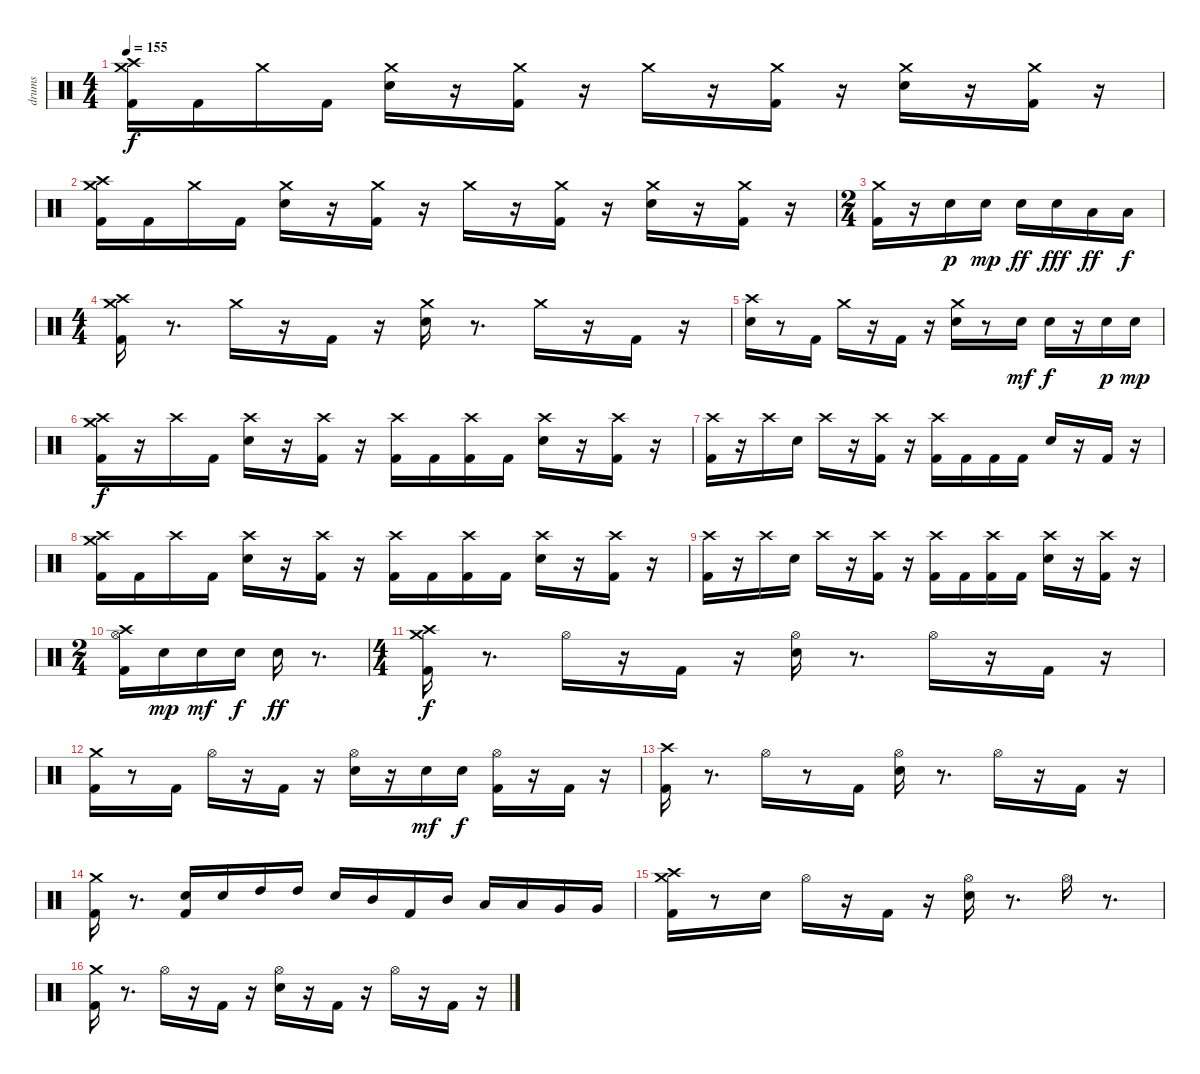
\track ("drums" "drums") {instrument percussion}
\staff {score}
\articulation defaults
\ts (4 4)
\tempo 155
\clef neutral
\ks c
("Kick (hit) 2" "Crash high (hit)" "Crash medium (hit)").16{dy f} "Kick (hit) 2".16 "Crash medium (hit)".16 "Kick (hit) 2".16 ("Snare (hit) 2" "Crash medium (hit)").16 r.16 ("Kick (hit) 2" "Crash medium (hit)").16 r.16 "Crash medium (hit)".16 r.16 ("Kick (hit) 2" "Crash medium (hit)").16 r.16 ("Snare (hit) 2" "Crash medium (hit)").16 r.16 ("Kick (hit) 2" "Crash medium (hit)").16 r.16 |
("Kick (hit) 2" "Crash high (hit)" "Crash medium (hit)").16 "Kick (hit) 2".16 "Crash medium (hit)".16 "Kick (hit) 2".16 ("Snare (hit) 2" "Crash medium (hit)").16 r.16 ("Kick (hit) 2" "Crash medium (hit)").16 r.16 "Crash medium (hit)".16 r.16 ("Kick (hit) 2" "Crash medium (hit)").16 r.16 ("Snare (hit) 2" "Crash medium (hit)").16 r.16 ("Kick (hit) 2" "Crash medium (hit)").16 r.16 |
\ts (2 4)
("Kick (hit) 2" "Crash medium (hit)").16 r.16 "Snare (hit) 2".16{dy p} "Snare (hit) 2".16{dy mp} "Snare (hit) 2".16{dy ff} "Snare (hit) 2".16{dy fff} "Low Tom (hit)".16{dy ff} "Low Tom (hit)".16{dy f} |
\ts (4 4)
("Kick (hit) 2" "Crash high (hit)" "Crash medium (hit)").16 r.8{d} "Crash medium (hit)".16 r.16 "Kick (hit) 2".16 r.16 ("Snare (hit) 2" "Crash medium (hit)").16 r.8{d} "Crash medium (hit)".16 r.16 "Kick (hit) 2".16 r.16 |
("Snare (hit) 2" "Crash high (hit)").16 r.8 "Kick (hit) 2".16 "Crash medium (hit)".16 r.16 "Kick (hit) 2".16 r.16 ("Snare (hit) 2" "Crash medium (hit)").16 r.8 "Snare (hit) 2".16{dy mf} "Snare (hit) 2".16{dy f} r.16 "Snare (hit) 2".16{dy p} "Snare (hit) 2".16{dy mp} |
("Kick (hit) 2" "Crash high (hit)" "Crash medium (hit)").16{dy f} r.16 "Crash high (hit)".16 "Kick (hit) 2".16 ("Snare (hit) 2" "Crash high (hit)").16 r.16 ("Kick (hit) 2" "Crash high (hit)").16 r.16 ("Kick (hit) 2" "Crash high (hit)").16 "Kick (hit) 2".16 ("Kick (hit) 2" "Crash high (hit)").16 "Kick (hit) 2".16 ("Snare (hit) 2" "Crash high (hit)").16 r.16 ("Kick (hit) 2" "Crash high (hit)").16 r.16 |
("Kick (hit) 2" "Crash high (hit)").16 r.16 "Crash high (hit)".16 "Snare (hit) 2".16 "Crash high (hit)".16 r.16 ("Kick (hit) 2" "Crash high (hit)").16 r.16 ("Kick (hit) 2" "Crash high (hit)").16 "Kick (hit) 2".16 "Kick (hit) 2".16 "Kick (hit) 2".16 "Snare (hit) 2".16 r.16 "Kick (hit) 2".16 r.16 |
("Kick (hit) 2" "Crash high (hit)" "Crash medium (hit)").16 "Kick (hit) 2".16 "Crash high (hit)".16 "Kick (hit) 2".16 ("Snare (hit) 2" "Crash high (hit)").16 r.16 ("Kick (hit) 2" "Crash high (hit)").16 r.16 ("Kick (hit) 2" "Crash high (hit)").16 "Kick (hit) 2".16 ("Kick (hit) 2" "Crash high (hit)").16 "Kick (hit) 2".16 ("Snare (hit) 2" "Crash high (hit)").16 r.16 ("Kick (hit) 2" "Crash high (hit)").16 r.16 |
("Kick (hit) 2" "Crash high (hit)").16 r.16 "Crash high (hit)".16 "Snare (hit) 2".16 "Crash high (hit)".16 r.16 ("Kick (hit) 2" "Crash high (hit)").16 r.16 ("Kick (hit) 2" "Crash high (hit)").16 "Kick (hit) 2".16 ("Kick (hit) 2" "Crash high (hit)").16 "Kick (hit) 2".16 ("Snare (hit) 2" "Crash high (hit)").16 r.16 ("Kick (hit) 2" "Crash high (hit)").16 r.16 |
\ts (2 4)
("Kick (hit) 2" "Hi-Hat (open)" "Crash high (hit)").16 "Snare (hit) 2".16{dy mp} "Snare (hit) 2".16{dy mf} "Snare (hit) 2".16{dy f} "Snare (hit) 2".16{dy ff} r.8{d} |
\ts (4 4)
("Kick (hit) 2" "Crash high (hit)" "Crash medium (hit)").16{dy f} r.8{d} "Hi-Hat (open)".16 r.16 "Kick (hit) 2".16 r.16 ("Snare (hit) 2" "Hi-Hat (open)").16 r.8{d} "Hi-Hat (open)".16 r.16 "Kick (hit) 2".16 r.16 |
("Kick (hit) 2" "Crash medium (hit)").16 r.8 "Kick (hit) 2".16 "Hi-Hat (open)".16 r.16 "Kick (hit) 2".16 r.16 ("Snare (hit) 2" "Hi-Hat (open)").16 r.16 "Snare (hit) 2".16{dy mf} "Snare (hit) 2".16{dy f} ("Kick (hit) 2" "Hi-Hat (open)").16 r.16 "Kick (hit) 2".16 r.16 |
("Kick (hit) 2" "Crash high (hit)").16 r.8{d} "Hi-Hat (open)".16 r.8 "Kick (hit) 2".16 ("Snare (hit) 2" "Hi-Hat (open)").16 r.8{d} "Hi-Hat (open)".16 r.16 "Kick (hit) 2".16 r.16 |
("Kick (hit) 2" "Crash medium (hit)").16 r.8{d} ("Kick (hit) 2" "Snare (hit) 2").16 "Snare (hit) 2".16 "High Tom (hit)".16 "High Tom (hit)".16 "Snare (hit) 2".16 "Mid Tom (hit)".16 "Kick (hit) 2".16 "Mid Tom (hit)".16 "Low Tom (hit)".16 "Low Tom (hit)".16 "Very Low Tom (hit)".16 "Very Low Tom (hit)".16 |
("Kick (hit) 2" "Crash high (hit)" "Crash medium (hit)").16 r.8 "Snare (hit) 2".16 "Hi-Hat (open)".16 r.16 "Kick (hit) 2".16 r.16 ("Snare (hit) 2" "Hi-Hat (open)").16 r.8{d} "Hi-Hat (open)".16 r.8{d} |
("Kick (hit) 2" "Crash medium (hit)").16 r.8{d} "Hi-Hat (open)".16 r.16 "Kick (hit) 2".16 r.16 ("Snare (hit) 2" "Hi-Hat (open)").16 r.16 "Kick (hit) 2".16 r.16 "Hi-Hat (open)".16 r.16 "Kick (hit) 2".16 r.16
